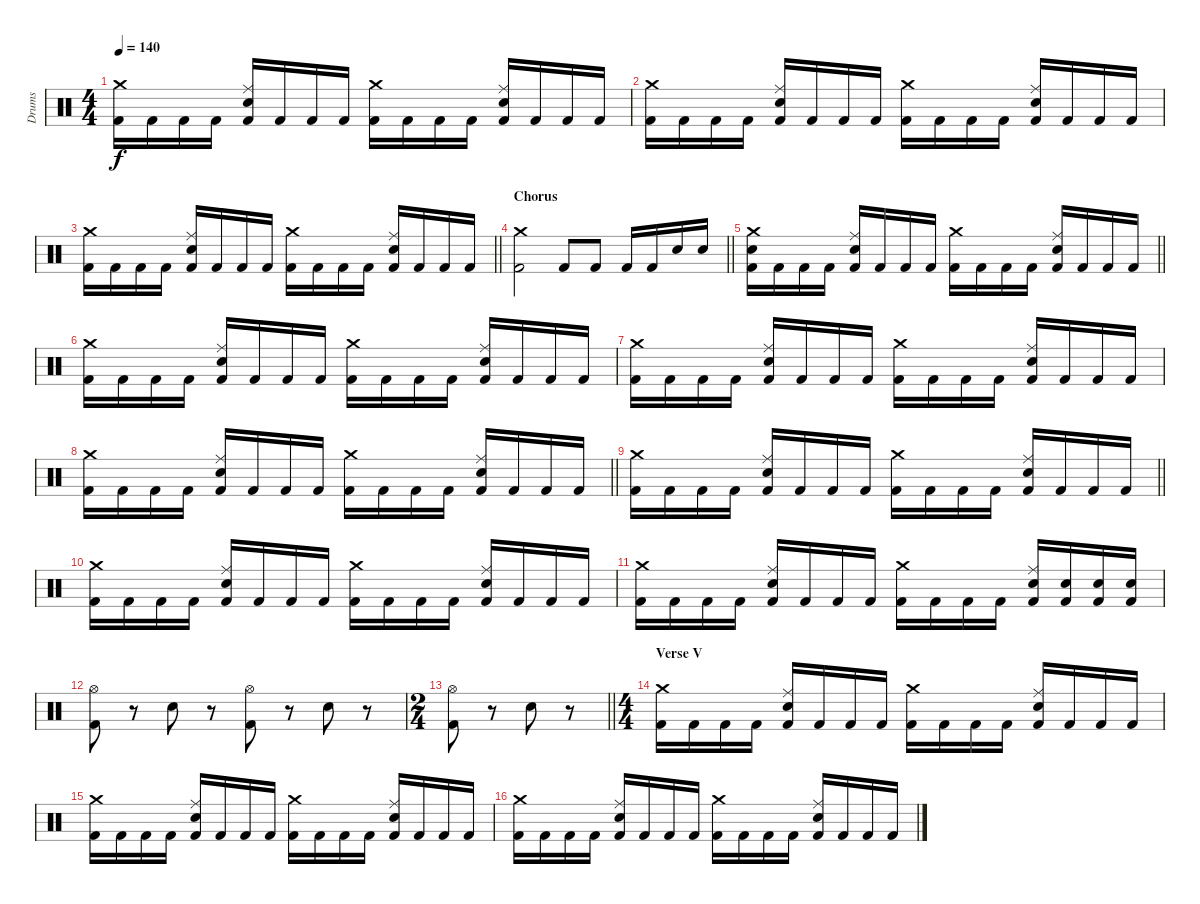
\track ("Drums" "Drums") {instrument percussion}
\staff {score}
\articulation defaults
\ts (4 4)
\tempo 140
\clef neutral
\ks c
("Crash medium (hit)" "Kick (hit) 2").16{dy f} "Kick (hit) 2".16 "Kick (hit) 2".16 "Kick (hit) 2".16 ("Ride (middle)" "Snare (hit) 2" "Kick (hit) 2").16 "Kick (hit) 2".16 "Kick (hit) 2".16 "Kick (hit) 2".16 ("Crash medium (hit)" "Kick (hit) 2").16 "Kick (hit) 2".16 "Kick (hit) 2".16 "Kick (hit) 2".16 ("Ride (middle)" "Snare (hit) 2" "Kick (hit) 2").16 "Kick (hit) 2".16 "Kick (hit) 2".16 "Kick (hit) 2".16 |
("Crash medium (hit)" "Kick (hit) 2").16 "Kick (hit) 2".16 "Kick (hit) 2".16 "Kick (hit) 2".16 ("Ride (middle)" "Snare (hit) 2" "Kick (hit) 2").16 "Kick (hit) 2".16 "Kick (hit) 2".16 "Kick (hit) 2".16 ("Crash medium (hit)" "Kick (hit) 2").16 "Kick (hit) 2".16 "Kick (hit) 2".16 "Kick (hit) 2".16 ("Ride (middle)" "Snare (hit) 2" "Kick (hit) 2").16 "Kick (hit) 2".16 "Kick (hit) 2".16 "Kick (hit) 2".16 |
\barLineRight lightlight
("Crash medium (hit)" "Kick (hit) 2").16 "Kick (hit) 2".16 "Kick (hit) 2".16 "Kick (hit) 2".16 ("Ride (middle)" "Snare (hit) 2" "Kick (hit) 2").16 "Kick (hit) 2".16 "Kick (hit) 2".16 "Kick (hit) 2".16 ("Crash medium (hit)" "Kick (hit) 2").16 "Kick (hit) 2".16 "Kick (hit) 2".16 "Kick (hit) 2".16 ("Ride (middle)" "Snare (hit) 2" "Kick (hit) 2").16 "Kick (hit) 2".16 "Kick (hit) 2".16 "Kick (hit) 2".16 |
\section ("" "Chorus")
\barLineRight lightlight
("Crash medium (hit)" "Kick (hit) 2").2 "Kick (hit) 2".8 "Kick (hit) 2".8 "Kick (hit) 2".16 "Kick (hit) 2".16 "Snare (hit) 2".16 "Snare (hit) 2".16 |
\barLineRight lightlight
("Crash medium (hit)" "Snare (hit) 2" "Kick (hit) 2").16 "Kick (hit) 2".16 "Kick (hit) 2".16 "Kick (hit) 2".16 ("Ride (middle)" "Snare (hit) 2" "Kick (hit) 2").16 "Kick (hit) 2".16 "Kick (hit) 2".16 "Kick (hit) 2".16 ("Crash medium (hit)" "Kick (hit) 2").16 "Kick (hit) 2".16 "Kick (hit) 2".16 "Kick (hit) 2".16 ("Ride (middle)" "Snare (hit) 2" "Kick (hit) 2").16 "Kick (hit) 2".16 "Kick (hit) 2".16 "Kick (hit) 2".16 |
("Crash medium (hit)" "Kick (hit) 2").16 "Kick (hit) 2".16 "Kick (hit) 2".16 "Kick (hit) 2".16 ("Ride (middle)" "Snare (hit) 2" "Kick (hit) 2").16 "Kick (hit) 2".16 "Kick (hit) 2".16 "Kick (hit) 2".16 ("Crash medium (hit)" "Kick (hit) 2").16 "Kick (hit) 2".16 "Kick (hit) 2".16 "Kick (hit) 2".16 ("Ride (middle)" "Snare (hit) 2" "Kick (hit) 2").16 "Kick (hit) 2".16 "Kick (hit) 2".16 "Kick (hit) 2".16 |
("Crash medium (hit)" "Kick (hit) 2").16 "Kick (hit) 2".16 "Kick (hit) 2".16 "Kick (hit) 2".16 ("Ride (middle)" "Snare (hit) 2" "Kick (hit) 2").16 "Kick (hit) 2".16 "Kick (hit) 2".16 "Kick (hit) 2".16 ("Crash medium (hit)" "Kick (hit) 2").16 "Kick (hit) 2".16 "Kick (hit) 2".16 "Kick (hit) 2".16 ("Ride (middle)" "Snare (hit) 2" "Kick (hit) 2").16 "Kick (hit) 2".16 "Kick (hit) 2".16 "Kick (hit) 2".16 |
\barLineRight lightlight
("Crash medium (hit)" "Kick (hit) 2").16 "Kick (hit) 2".16 "Kick (hit) 2".16 "Kick (hit) 2".16 ("Ride (middle)" "Snare (hit) 2" "Kick (hit) 2").16 "Kick (hit) 2".16 "Kick (hit) 2".16 "Kick (hit) 2".16 ("Crash medium (hit)" "Kick (hit) 2").16 "Kick (hit) 2".16 "Kick (hit) 2".16 "Kick (hit) 2".16 ("Ride (middle)" "Snare (hit) 2" "Kick (hit) 2").16 "Kick (hit) 2".16 "Kick (hit) 2".16 "Kick (hit) 2".16 |
\barLineRight lightlight
("Crash medium (hit)" "Kick (hit) 2").16 "Kick (hit) 2".16 "Kick (hit) 2".16 "Kick (hit) 2".16 ("Ride (middle)" "Snare (hit) 2" "Kick (hit) 2").16 "Kick (hit) 2".16 "Kick (hit) 2".16 "Kick (hit) 2".16 ("Crash medium (hit)" "Kick (hit) 2").16 "Kick (hit) 2".16 "Kick (hit) 2".16 "Kick (hit) 2".16 ("Ride (middle)" "Snare (hit) 2" "Kick (hit) 2").16 "Kick (hit) 2".16 "Kick (hit) 2".16 "Kick (hit) 2".16 |
("Crash medium (hit)" "Kick (hit) 2").16 "Kick (hit) 2".16 "Kick (hit) 2".16 "Kick (hit) 2".16 ("Ride (middle)" "Snare (hit) 2" "Kick (hit) 2").16 "Kick (hit) 2".16 "Kick (hit) 2".16 "Kick (hit) 2".16 ("Crash medium (hit)" "Kick (hit) 2").16 "Kick (hit) 2".16 "Kick (hit) 2".16 "Kick (hit) 2".16 ("Ride (middle)" "Snare (hit) 2" "Kick (hit) 2").16 "Kick (hit) 2".16 "Kick (hit) 2".16 "Kick (hit) 2".16 |
("Crash medium (hit)" "Kick (hit) 2").16 "Kick (hit) 2".16 "Kick (hit) 2".16 "Kick (hit) 2".16 ("Ride (middle)" "Snare (hit) 2" "Kick (hit) 2").16 "Kick (hit) 2".16 "Kick (hit) 2".16 "Kick (hit) 2".16 ("Crash medium (hit)" "Kick (hit) 2").16 "Kick (hit) 2".16 "Kick (hit) 2".16 "Kick (hit) 2".16 ("Ride (middle)" "Snare (hit) 2" "Kick (hit) 2").16 ("Snare (hit) 2" "Kick (hit) 2").16 ("Snare (hit) 2" "Kick (hit) 2").16 ("Snare (hit) 2" "Kick (hit) 2").16 |
("Hi-Hat (open)" "Kick (hit) 2").8 r.8 "Snare (hit) 2".8 r.8 ("Hi-Hat (open)" "Kick (hit) 2").8 r.8 "Snare (hit) 2".8 r.8 |
\ts (2 4)
\barLineRight lightlight
("Hi-Hat (open)" "Kick (hit) 2").8 r.8 "Snare (hit) 2".8 r.8 |
\ts (4 4)
\section ("" "Verse V")
("Crash medium (hit)" "Kick (hit) 2").16 "Kick (hit) 2".16 "Kick (hit) 2".16 "Kick (hit) 2".16 ("Ride (middle)" "Snare (hit) 2" "Kick (hit) 2").16 "Kick (hit) 2".16 "Kick (hit) 2".16 "Kick (hit) 2".16 ("Crash medium (hit)" "Kick (hit) 2").16 "Kick (hit) 2".16 "Kick (hit) 2".16 "Kick (hit) 2".16 ("Ride (middle)" "Snare (hit) 2" "Kick (hit) 2").16 "Kick (hit) 2".16 "Kick (hit) 2".16 "Kick (hit) 2".16 |
("Crash medium (hit)" "Kick (hit) 2").16 "Kick (hit) 2".16 "Kick (hit) 2".16 "Kick (hit) 2".16 ("Ride (middle)" "Snare (hit) 2" "Kick (hit) 2").16 "Kick (hit) 2".16 "Kick (hit) 2".16 "Kick (hit) 2".16 ("Crash medium (hit)" "Kick (hit) 2").16 "Kick (hit) 2".16 "Kick (hit) 2".16 "Kick (hit) 2".16 ("Ride (middle)" "Snare (hit) 2" "Kick (hit) 2").16 "Kick (hit) 2".16 "Kick (hit) 2".16 "Kick (hit) 2".16 |
("Crash medium (hit)" "Kick (hit) 2").16 "Kick (hit) 2".16 "Kick (hit) 2".16 "Kick (hit) 2".16 ("Ride (middle)" "Snare (hit) 2" "Kick (hit) 2").16 "Kick (hit) 2".16 "Kick (hit) 2".16 "Kick (hit) 2".16 ("Crash medium (hit)" "Kick (hit) 2").16 "Kick (hit) 2".16 "Kick (hit) 2".16 "Kick (hit) 2".16 ("Ride (middle)" "Snare (hit) 2" "Kick (hit) 2").16 "Kick (hit) 2".16 "Kick (hit) 2".16 "Kick (hit) 2".16
